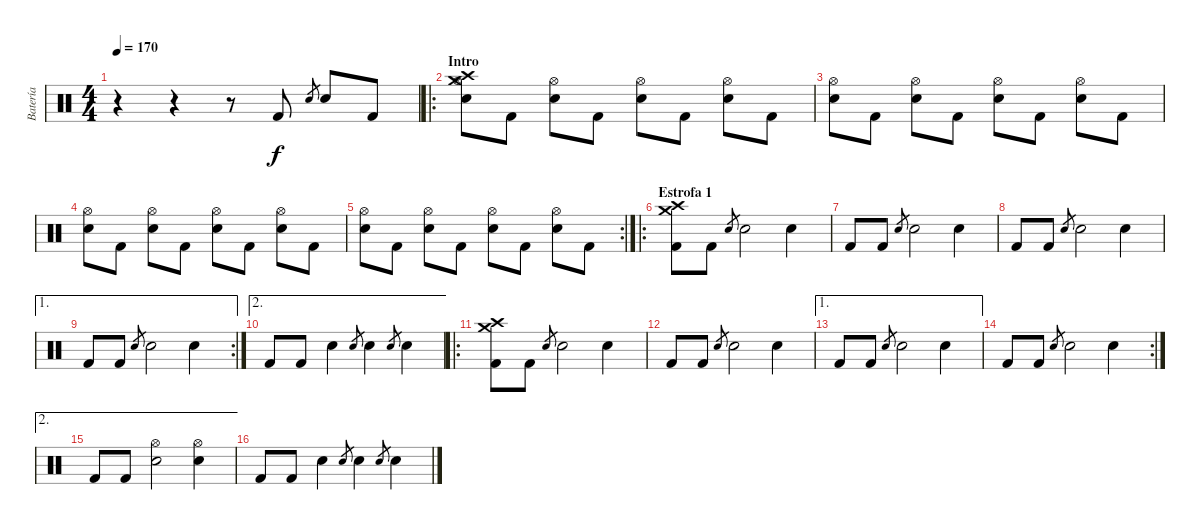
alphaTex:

\track ("Batería" "Batería") {instrument percussion}
\staff {score}
\articulation defaults
\ts (4 4)
\tempo 170
\clef neutral
\ks c
r.4{dy f} r.4 r.8 "Kick (hit) 2".8 "Electric Snare (hit)".8{gr} "Snare (hit) 2".8 "Kick (hit) 2".8 |
\ro
\section ("" "Intro")
("Crash high (hit)" "Crash medium (hit)" "Snare (hit) 2" "Hi-Hat (open)").8 "Kick (hit) 2".8 ("Snare (hit) 2" "Hi-Hat (open)").8 "Kick (hit) 2".8 ("Snare (hit) 2" "Hi-Hat (open)").8 "Kick (hit) 2".8 ("Snare (hit) 2" "Hi-Hat (open)").8 "Kick (hit) 2".8 |
("Snare (hit) 2" "Hi-Hat (open)").8 "Kick (hit) 2".8 ("Snare (hit) 2" "Hi-Hat (open)").8 "Kick (hit) 2".8 ("Snare (hit) 2" "Hi-Hat (open)").8 "Kick (hit) 2".8 ("Snare (hit) 2" "Hi-Hat (open)").8 "Kick (hit) 2".8 |
("Snare (hit) 2" "Hi-Hat (open)").8 "Kick (hit) 2".8 ("Snare (hit) 2" "Hi-Hat (open)").8 "Kick (hit) 2".8 ("Snare (hit) 2" "Hi-Hat (open)").8 "Kick (hit) 2".8 ("Snare (hit) 2" "Hi-Hat (open)").8 "Kick (hit) 2".8 |
\rc 2
("Snare (hit) 2" "Hi-Hat (open)").8 "Kick (hit) 2".8 ("Snare (hit) 2" "Hi-Hat (open)").8 "Kick (hit) 2".8 ("Snare (hit) 2" "Hi-Hat (open)").8 "Kick (hit) 2".8 ("Snare (hit) 2" "Hi-Hat (open)").8 "Kick (hit) 2".8 |
\ro
\section ("" "Estrofa 1")
("Kick (hit) 2" "Crash medium (hit)" "Crash high (hit)").8 "Kick (hit) 2".8 "Electric Snare (hit)".8{gr} "Snare (hit) 2".2 "Snare (hit) 2".4 |
"Kick (hit) 2".8 "Kick (hit) 2".8 "Electric Snare (hit)".8{gr} "Snare (hit) 2".2 "Snare (hit) 2".4 |
"Kick (hit) 2".8 "Kick (hit) 2".8 "Electric Snare (hit)".8{gr} "Snare (hit) 2".2 "Snare (hit) 2".4 |
\ae 1
\rc 2 "Kick (hit) 2".8 "Kick (hit) 2".8 "Electric Snare (hit)".8{gr} "Snare (hit) 2".2 "Snare (hit) 2".4
|
\ae 2 "Kick (hit) 2".8 "Kick (hit) 2".8 "Electric Snare (hit)".4 "Electric Snare (hit)".8{gr} "Snare (hit) 2".4 "Electric Snare (hit)".8{gr} "Snare (hit) 2".4
|
\ro
("Kick (hit) 2" "Crash medium (hit)" "Crash high (hit)").8 "Kick (hit) 2".8 "Electric Snare (hit)".8{gr} "Snare (hit) 2".2 "Snare (hit) 2".4 |
"Kick (hit) 2".8 "Kick (hit) 2".8 "Electric Snare (hit)".8{gr} "Snare (hit) 2".2 "Snare (hit) 2".4 |
\ae 1 "Kick (hit) 2".8 "Kick (hit) 2".8 "Electric Snare (hit)".8{gr} "Snare (hit) 2".2 "Snare (hit) 2".4
|
\rc 2 "Kick (hit) 2".8 "Kick (hit) 2".8 "Electric Snare (hit)".8{gr} "Snare (hit) 2".2 "Snare (hit) 2".4
|
\ae 2 "Kick (hit) 2".8 "Kick (hit) 2".8
("Hi-Hat (open)" "Snare (hit) 2").2 ("Hi-Hat (open)" "Snare (hit) 2").4 |
"Kick (hit) 2".8 "Kick (hit) 2".8 "Electric Snare (hit)".4 "Electric Snare (hit)".8{gr} "Snare (hit) 2".4 "Electric Snare (hit)".8{gr} "Snare (hit) 2".4
